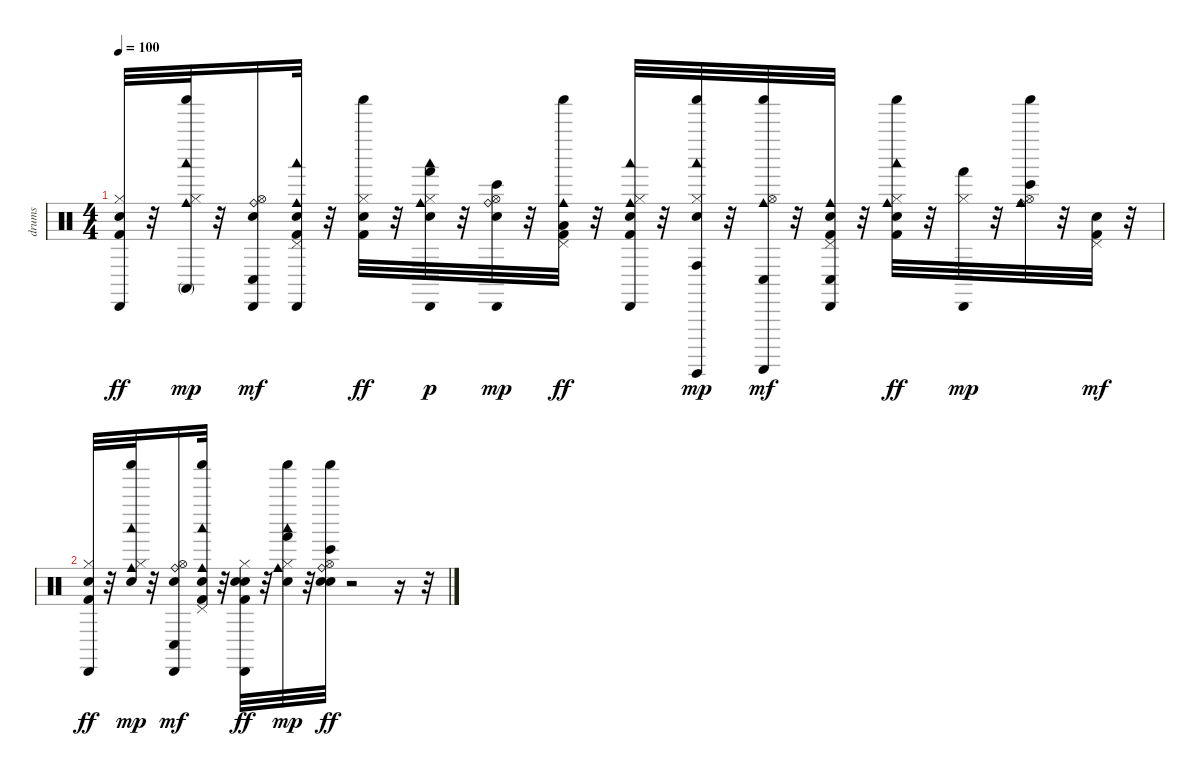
\track ("drums" "drums") {instrument percussion}
\staff {score}
\articulation defaults
\ts (4 4)
\tempo 100
\clef neutral
\ks c
("Snare (hit) 2" "Hi-Hat (closed)" "Cabasa (hit)" "Kick (hit) 2").32{dy ff} r.32 ("Hi-Hat (closed)" "Woodblock low (hit)" "Shaker (hit)" "Cowbell medium (hit)" "Conga high (mute)").32{dy mp} r.32 ("Snare (hit) 2" "Hi-Hat (open)" "Cabasa (hit)" "Ride (bell)" "Conga low (hit)").16{dy mf} ("Snare (hit) 2" "Pedal Hi-Hat (hit)" "Woodblock low (hit)" "Cabasa (hit)" "Cowbell medium (hit)" "Kick (hit) 2").32 r.32 ("Snare (hit) 2" "Hi-Hat (closed)" "Shaker (hit)" "Kick (hit) 2").32{dy ff} r.32 ("Snare (hit) 2" "Hi-Hat (closed)" "Woodblock low (hit)" "Cabasa (hit)" "Cowbell medium (hit)" "Hand (hit)").32{dy p} r.32 ("Snare (hit) 2" "Hi-Hat (open)" "Cabasa (hit)" "Ride (bell)" "Bongo High (hit)").32{dy mp} r.32 ("Pedal Hi-Hat (hit)" "Shaker (hit)" "Cowbell medium (hit)" "Kick (hit) 2" "Low Tom (hit)").32{dy ff} r.32 ("Snare (hit) 2" "Hi-Hat (closed)" "Woodblock low (hit)" "Cabasa (hit)" "Cowbell medium (hit)" "Kick (hit) 2").32 r.32 ("Snare (hit) 2" "Hi-Hat (closed)" "Woodblock low (hit)" "Shaker (hit)" "Guiro (hit)" "Conga high (hit)").32{dy mp} r.32 ("Hi-Hat (open)" "Shaker (hit)" "Guiro (scrap-return)" "Cowbell medium (hit)" "Conga low (hit)").32{dy mf} r.32 ("Snare (hit) 2" "Pedal Hi-Hat (hit)" "Cabasa (hit)" "Cowbell medium (hit)" "Kick (hit) 2" "Conga low (hit)").32 r.32 ("Snare (hit) 2" "Hi-Hat (closed)" "Woodblock low (hit)" "Shaker (hit)" "Cowbell medium (hit)" "Kick (hit) 2").32{dy ff} r.32 ("Hi-Hat (closed)" "Cabasa (hit)" "Hand (hit)").32{dy mp} r.32 ("Hi-Hat (open)" "Shaker (hit)" "Cowbell medium (hit)" "Ride (bell)" "Bongo High (hit)").32 r.32 ("Snare (hit) 2" "Pedal Hi-Hat (hit)" "Kick (hit) 2").32{dy mf} r.32 |
("Snare (hit) 2" "Hi-Hat (closed)" "Cabasa (hit)" "Kick (hit) 2").32{dy ff} r.32 ("Snare (hit) 2" "Hi-Hat (closed)" "Woodblock low (hit)" "Shaker (hit)" "Cowbell medium (hit)").32{dy mp} r.32 ("Snare (hit) 2" "Hi-Hat (open)" "Cabasa (hit)" "Ride (bell)" "Conga low (hit)").16{dy mf} ("Snare (hit) 2" "Pedal Hi-Hat (hit)" "Woodblock low (hit)" "Shaker (hit)" "Cowbell medium (hit)" "Kick (hit) 2").32 r.32 ("Snare (hit) 2" "Hi-Hat (closed)" "Cabasa (hit)" "Kick (hit) 2" "Snare (hit) 2").32{dy ff} r.32 ("Snare (hit) 2" "Hi-Hat (closed)" "Woodblock low (hit)" "Shaker (hit)" "Cowbell medium (hit)" "Hand (hit)").32{dy mp} r.32 ("Snare (hit) 2" "Hi-Hat (open)" "Shaker (hit)" "Ride (bell)" "Bongo High (hit)" "Snare (hit) 2").32{dy ff} r.2 r.16 r.32
